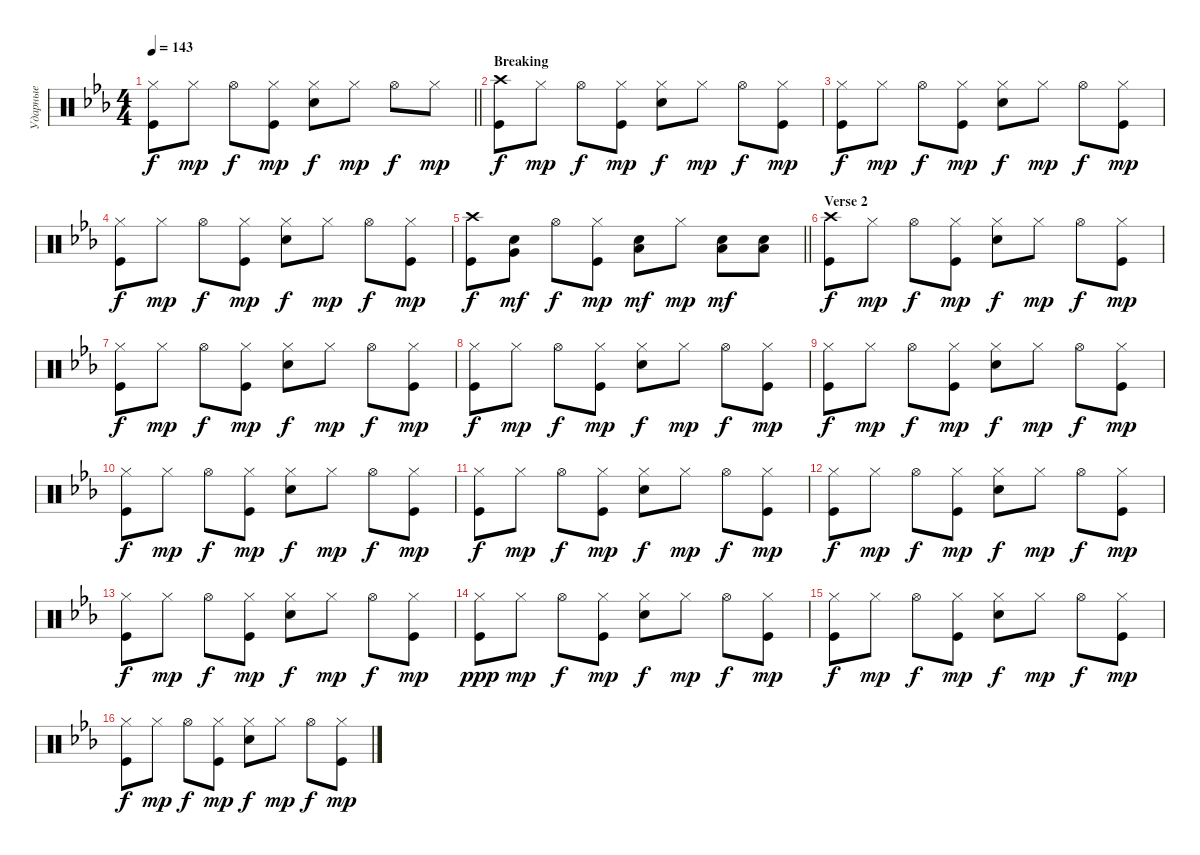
\track ("Ударные" "Ударные") {instrument percussion}
\staff {score}
\articulation defaults
\ts (4 4)
\tempo 143
\clef neutral
\barLineRight lightlight
\ks cminor
("Kick (hit)" "Hi-Hat (closed)").8{dy f} "Hi-Hat (closed)".8{dy mp} "Hi-Hat (open)".8{dy f} ("Kick (hit)" "Hi-Hat (closed)").8{dy mp} ("Snare (hit) 2" "Hi-Hat (closed)").8{dy f} "Hi-Hat (closed)".8{dy mp} "Hi-Hat (open)".8{dy f} "Hi-Hat (closed)".8{dy mp} |
\section ("" "Breaking")
("Kick (hit)" "Crash high (hit)").8{dy f} "Hi-Hat (closed)".8{dy mp} "Hi-Hat (open)".8{dy f} ("Kick (hit)" "Hi-Hat (closed)").8{dy mp} ("Snare (hit) 2" "Hi-Hat (closed)").8{dy f} "Hi-Hat (closed)".8{dy mp} "Hi-Hat (open)".8{dy f} ("Kick (hit)" "Hi-Hat (closed)").8{dy mp} |
("Kick (hit)" "Hi-Hat (closed)").8{dy f} "Hi-Hat (closed)".8{dy mp} "Hi-Hat (open)".8{dy f} ("Kick (hit)" "Hi-Hat (closed)").8{dy mp} ("Snare (hit) 2" "Hi-Hat (closed)").8{dy f} "Hi-Hat (closed)".8{dy mp} "Hi-Hat (open)".8{dy f} ("Kick (hit)" "Hi-Hat (closed)").8{dy mp} |
("Kick (hit)" "Hi-Hat (closed)").8{dy f} "Hi-Hat (closed)".8{dy mp} "Hi-Hat (open)".8{dy f} ("Kick (hit)" "Hi-Hat (closed)").8{dy mp} ("Snare (hit) 2" "Hi-Hat (closed)").8{dy f} "Hi-Hat (closed)".8{dy mp} "Hi-Hat (open)".8{dy f} ("Kick (hit)" "Hi-Hat (closed)").8{dy mp} |
\barLineRight lightlight
("Kick (hit)" "Crash high (hit)").8{dy f} ("Snare (hit) 2" "Very Low Tom (hit)").8{dy mf} "Hi-Hat (open)".8{dy f} ("Kick (hit)" "Hi-Hat (closed)").8{dy mp} ("Snare (hit) 2" "Low Tom (hit)").8{dy mf} "Hi-Hat (closed)".8{dy mp} ("Snare (hit) 2" "Low Tom (hit)").8{dy mf} ("Low Tom (hit)" "Snare (hit) 2").8 |
\section ("" "Verse 2")
("Kick (hit)" "Crash high (hit)").8{dy f} "Hi-Hat (closed)".8{dy mp} "Hi-Hat (open)".8{dy f} ("Kick (hit)" "Hi-Hat (closed)").8{dy mp} ("Snare (hit) 2" "Hi-Hat (closed)").8{dy f} "Hi-Hat (closed)".8{dy mp} "Hi-Hat (open)".8{dy f} ("Kick (hit)" "Hi-Hat (closed)").8{dy mp} |
("Kick (hit)" "Hi-Hat (closed)").8{dy f} "Hi-Hat (closed)".8{dy mp} "Hi-Hat (open)".8{dy f} ("Kick (hit)" "Hi-Hat (closed)").8{dy mp} ("Snare (hit) 2" "Hi-Hat (closed)").8{dy f} "Hi-Hat (closed)".8{dy mp} "Hi-Hat (open)".8{dy f} ("Kick (hit)" "Hi-Hat (closed)").8{dy mp} |
("Kick (hit)" "Hi-Hat (closed)").8{dy f} "Hi-Hat (closed)".8{dy mp} "Hi-Hat (open)".8{dy f} ("Kick (hit)" "Hi-Hat (closed)").8{dy mp} ("Snare (hit) 2" "Hi-Hat (closed)").8{dy f} "Hi-Hat (closed)".8{dy mp} "Hi-Hat (open)".8{dy f} ("Kick (hit)" "Hi-Hat (closed)").8{dy mp} |
("Kick (hit)" "Hi-Hat (closed)").8{dy f} "Hi-Hat (closed)".8{dy mp} "Hi-Hat (open)".8{dy f} ("Kick (hit)" "Hi-Hat (closed)").8{dy mp} ("Snare (hit) 2" "Hi-Hat (closed)").8{dy f} "Hi-Hat (closed)".8{dy mp} "Hi-Hat (open)".8{dy f} ("Kick (hit)" "Hi-Hat (closed)").8{dy mp} |
("Kick (hit)" "Hi-Hat (closed)").8{dy f} "Hi-Hat (closed)".8{dy mp} "Hi-Hat (open)".8{dy f} ("Kick (hit)" "Hi-Hat (closed)").8{dy mp} ("Snare (hit) 2" "Hi-Hat (closed)").8{dy f} "Hi-Hat (closed)".8{dy mp} "Hi-Hat (open)".8{dy f} ("Kick (hit)" "Hi-Hat (closed)").8{dy mp} |
("Kick (hit)" "Hi-Hat (closed)").8{dy f} "Hi-Hat (closed)".8{dy mp} "Hi-Hat (open)".8{dy f} ("Kick (hit)" "Hi-Hat (closed)").8{dy mp} ("Snare (hit) 2" "Hi-Hat (closed)").8{dy f} "Hi-Hat (closed)".8{dy mp} "Hi-Hat (open)".8{dy f} ("Kick (hit)" "Hi-Hat (closed)").8{dy mp} |
("Kick (hit)" "Hi-Hat (closed)").8{dy f} "Hi-Hat (closed)".8{dy mp} "Hi-Hat (open)".8{dy f} ("Kick (hit)" "Hi-Hat (closed)").8{dy mp} ("Snare (hit) 2" "Hi-Hat (closed)").8{dy f} "Hi-Hat (closed)".8{dy mp} "Hi-Hat (open)".8{dy f} ("Kick (hit)" "Hi-Hat (closed)").8{dy mp} |
("Kick (hit)" "Hi-Hat (closed)").8{dy f} "Hi-Hat (closed)".8{dy mp} "Hi-Hat (open)".8{dy f} ("Kick (hit)" "Hi-Hat (closed)").8{dy mp} ("Snare (hit) 2" "Hi-Hat (closed)").8{dy f} "Hi-Hat (closed)".8{dy mp} "Hi-Hat (open)".8{dy f} ("Kick (hit)" "Hi-Hat (closed)").8{dy mp} |
("Kick (hit)" "Hi-Hat (closed)").8{dy ppp} "Hi-Hat (closed)".8{dy mp} "Hi-Hat (open)".8{dy f} ("Kick (hit)" "Hi-Hat (closed)").8{dy mp} ("Snare (hit) 2" "Hi-Hat (closed)").8{dy f} "Hi-Hat (closed)".8{dy mp} "Hi-Hat (open)".8{dy f} ("Kick (hit)" "Hi-Hat (closed)").8{dy mp} |
("Kick (hit)" "Hi-Hat (closed)").8{dy f} "Hi-Hat (closed)".8{dy mp} "Hi-Hat (open)".8{dy f} ("Kick (hit)" "Hi-Hat (closed)").8{dy mp} ("Snare (hit) 2" "Hi-Hat (closed)").8{dy f} "Hi-Hat (closed)".8{dy mp} "Hi-Hat (open)".8{dy f} ("Kick (hit)" "Hi-Hat (closed)").8{dy mp} |
("Kick (hit)" "Hi-Hat (closed)").8{dy f} "Hi-Hat (closed)".8{dy mp} "Hi-Hat (open)".8{dy f} ("Kick (hit)" "Hi-Hat (closed)").8{dy mp} ("Snare (hit) 2" "Hi-Hat (closed)").8{dy f} "Hi-Hat (closed)".8{dy mp} "Hi-Hat (open)".8{dy f} ("Kick (hit)" "Hi-Hat (closed)").8{dy mp}
